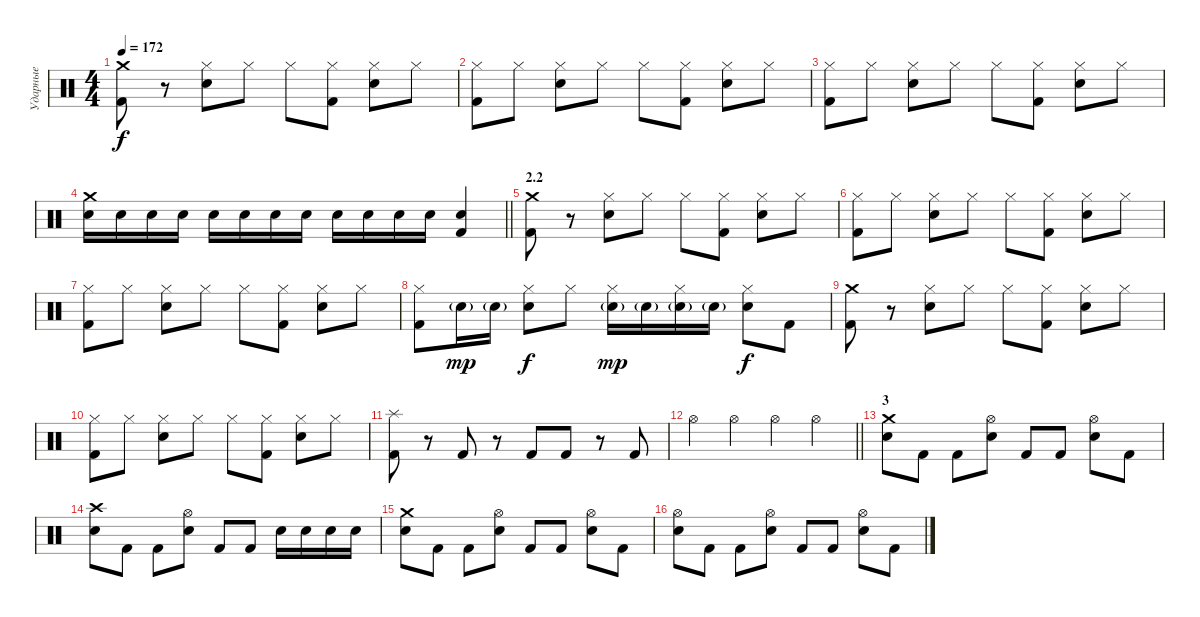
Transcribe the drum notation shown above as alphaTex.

\track ("Ударные" "Ударные") {instrument percussion}
\staff {score}
\articulation defaults
\ts (4 4)
\tempo 172
\clef neutral
\ks c
("Crash medium (hit)" "Kick (hit) 2").8{dy f} r.8 ("Hi-Hat (closed)" "Electric Snare (hit)").8 "Hi-Hat (closed)".8 "Hi-Hat (closed)".8 ("Hi-Hat (closed)" "Kick (hit) 2").8 ("Hi-Hat (closed)" "Electric Snare (hit)").8 "Hi-Hat (closed)".8 |
("Hi-Hat (closed)" "Kick (hit) 2").8 "Hi-Hat (closed)".8 ("Hi-Hat (closed)" "Electric Snare (hit)").8 "Hi-Hat (closed)".8 "Hi-Hat (closed)".8 ("Hi-Hat (closed)" "Kick (hit) 2").8 ("Hi-Hat (closed)" "Electric Snare (hit)").8 "Hi-Hat (closed)".8 |
("Hi-Hat (closed)" "Kick (hit) 2").8 "Hi-Hat (closed)".8 ("Hi-Hat (closed)" "Electric Snare (hit)").8 "Hi-Hat (closed)".8 "Hi-Hat (closed)".8 ("Hi-Hat (closed)" "Kick (hit) 2").8 ("Hi-Hat (closed)" "Electric Snare (hit)").8 "Hi-Hat (closed)".8 |
\barLineRight lightlight
("Crash medium (hit)" "Electric Snare (hit)").16 "Electric Snare (hit)".16 "Electric Snare (hit)".16 "Electric Snare (hit)".16 "Electric Snare (hit)".16 "Electric Snare (hit)".16 "Electric Snare (hit)".16 "Electric Snare (hit)".16 "Electric Snare (hit)".16 "Electric Snare (hit)".16 "Electric Snare (hit)".16 "Electric Snare (hit)".16 ("Electric Snare (hit)" "Kick (hit) 2").4 |
\section ("" "2.2")
("Crash medium (hit)" "Kick (hit) 2").8 r.8 ("Hi-Hat (closed)" "Electric Snare (hit)").8 "Hi-Hat (closed)".8 "Hi-Hat (closed)".8 ("Hi-Hat (closed)" "Kick (hit) 2").8 ("Hi-Hat (closed)" "Electric Snare (hit)").8 "Hi-Hat (closed)".8 |
("Hi-Hat (closed)" "Kick (hit) 2").8 "Hi-Hat (closed)".8 ("Hi-Hat (closed)" "Electric Snare (hit)").8 "Hi-Hat (closed)".8 "Hi-Hat (closed)".8 ("Hi-Hat (closed)" "Kick (hit) 2").8 ("Hi-Hat (closed)" "Electric Snare (hit)").8 "Hi-Hat (closed)".8 |
("Hi-Hat (closed)" "Kick (hit) 2").8 "Hi-Hat (closed)".8 ("Hi-Hat (closed)" "Electric Snare (hit)").8 "Hi-Hat (closed)".8 "Hi-Hat (closed)".8 ("Hi-Hat (closed)" "Kick (hit) 2").8 ("Hi-Hat (closed)" "Electric Snare (hit)").8 "Hi-Hat (closed)".8 |
("Hi-Hat (closed)" "Kick (hit) 2").8 "Electric Snare (hit)"{g}.16{dy mp} "Electric Snare (hit)"{g}.16 ("Hi-Hat (closed)" "Electric Snare (hit)").8{dy f} "Hi-Hat (closed)".8 ("Hi-Hat (closed)" "Electric Snare (hit)"{g}).16{dy mp} "Electric Snare (hit)"{g}.16 ("Hi-Hat (closed)" "Electric Snare (hit)"{g}).16 "Electric Snare (hit)"{g}.16 ("Hi-Hat (closed)" "Electric Snare (hit)").8{dy f} "Kick (hit) 2".8 |
("Crash medium (hit)" "Kick (hit) 2").8 r.8 ("Hi-Hat (closed)" "Electric Snare (hit)").8 "Hi-Hat (closed)".8 "Hi-Hat (closed)".8 ("Hi-Hat (closed)" "Kick (hit) 2").8 ("Hi-Hat (closed)" "Electric Snare (hit)").8 "Hi-Hat (closed)".8 |
("Hi-Hat (closed)" "Kick (hit) 2").8 "Hi-Hat (closed)".8 ("Hi-Hat (closed)" "Electric Snare (hit)").8 "Hi-Hat (closed)".8 "Hi-Hat (closed)".8 ("Hi-Hat (closed)" "Kick (hit) 2").8 ("Hi-Hat (closed)" "Electric Snare (hit)").8 "Hi-Hat (closed)".8 |
("Splash (hit)" "Kick (hit) 2").8 r.8 "Kick (hit) 2".8 r.8 "Kick (hit) 2".8 "Kick (hit) 2".8 r.8 "Kick (hit) 2".8 |
\barLineRight lightlight "Hi-Hat (open)".4 "Hi-Hat (open)".4 "Hi-Hat (open)".4 "Hi-Hat (open)".4
|
\section ("" "3")
("Crash medium (hit)" "Electric Snare (hit)").8 "Kick (hit) 2".8 "Kick (hit) 2".8 ("Hi-Hat (open)" "Electric Snare (hit)").8 "Kick (hit) 2".8 "Kick (hit) 2".8 ("Hi-Hat (open)" "Electric Snare (hit)").8 "Kick (hit) 2".8 |
("Crash high (hit)" "Electric Snare (hit)").8 "Kick (hit) 2".8 "Kick (hit) 2".8 ("Hi-Hat (open)" "Electric Snare (hit)").8 "Kick (hit) 2".8 "Kick (hit) 2".8 "Electric Snare (hit)".16 "Electric Snare (hit)".16 "Electric Snare (hit)".16 "Electric Snare (hit)".16 |
("Crash medium (hit)" "Electric Snare (hit)").8 "Kick (hit) 2".8 "Kick (hit) 2".8 ("Hi-Hat (open)" "Electric Snare (hit)").8 "Kick (hit) 2".8 "Kick (hit) 2".8 ("Hi-Hat (open)" "Electric Snare (hit)").8 "Kick (hit) 2".8 |
("Hi-Hat (open)" "Electric Snare (hit)").8 "Kick (hit) 2".8 "Kick (hit) 2".8 ("Hi-Hat (open)" "Electric Snare (hit)").8 "Kick (hit) 2".8 "Kick (hit) 2".8 ("Hi-Hat (open)" "Electric Snare (hit)").8 "Kick (hit) 2".8
